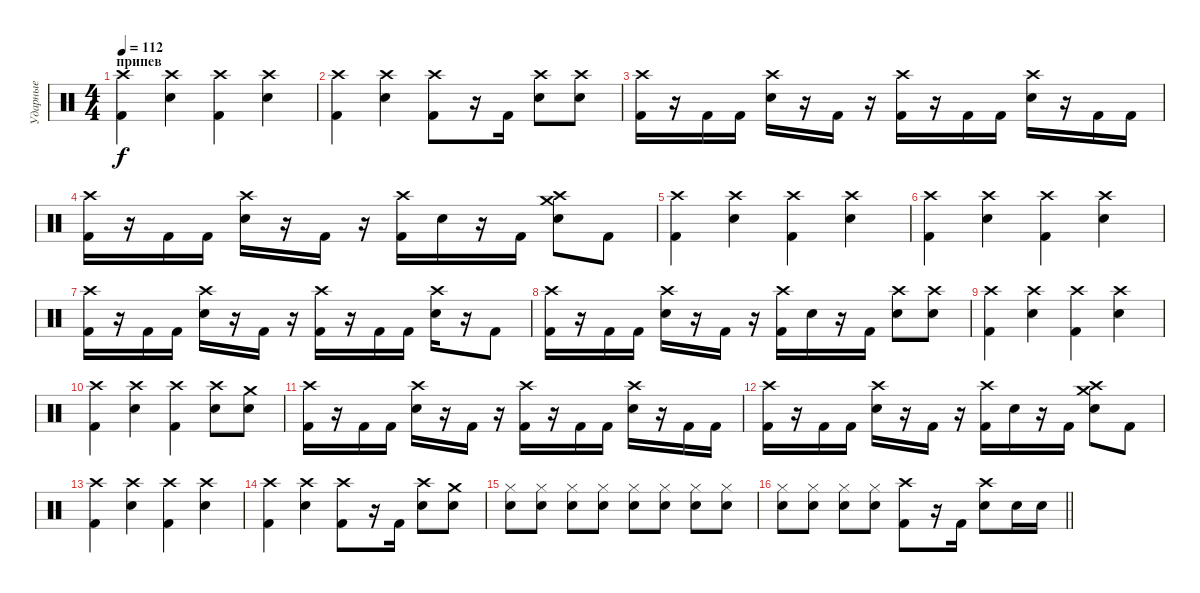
\track ("Ударные" "Ударные") {instrument percussion}
\staff {score}
\articulation defaults
\ts (4 4)
\section ("" "припев")
\tempo 112
\clef neutral
\ks c
("Crash high (hit)" "Kick (hit) 2").4{dy f} ("Crash high (hit)" "Snare (hit) 2").4 ("Crash high (hit)" "Kick (hit) 2").4 ("Crash high (hit)" "Snare (hit) 2").4 |
("Crash high (hit)" "Kick (hit) 2").4 ("Crash high (hit)" "Snare (hit) 2").4 ("Crash high (hit)" "Kick (hit) 2").8 r.16 "Kick (hit) 2".16 ("Crash high (hit)" "Snare (hit) 2").8 ("Crash high (hit)" "Snare (hit) 2").8 |
("Crash high (hit)" "Kick (hit) 2").16 r.16 "Kick (hit) 2".16 "Kick (hit) 2".16 ("Crash high (hit)" "Snare (hit) 2").16 r.16 "Kick (hit) 2".16 r.16 ("Crash high (hit)" "Kick (hit) 2").16 r.16 "Kick (hit) 2".16 "Kick (hit) 2".16 ("Crash high (hit)" "Snare (hit) 2").16 r.16 "Kick (hit) 2".16 "Kick (hit) 2".16 |
("Crash high (hit)" "Kick (hit) 2").16 r.16 "Kick (hit) 2".16 "Kick (hit) 2".16 ("Crash high (hit)" "Snare (hit) 2").16 r.16 "Kick (hit) 2".16 r.16 ("Crash high (hit)" "Kick (hit) 2").16 "Snare (hit) 2".16 r.16 "Kick (hit) 2".16 ("Crash high (hit)" "Crash medium (hit)" "Snare (hit) 2").8 "Kick (hit) 2".8 |
("Crash high (hit)" "Kick (hit) 2").4 ("Crash high (hit)" "Snare (hit) 2").4 ("Crash high (hit)" "Kick (hit) 2").4 ("Crash high (hit)" "Snare (hit) 2").4 |
("Crash high (hit)" "Kick (hit) 2").4 ("Crash high (hit)" "Snare (hit) 2").4 ("Crash high (hit)" "Kick (hit) 2").4 ("Crash high (hit)" "Snare (hit) 2").4 |
("Crash high (hit)" "Kick (hit) 2").16 r.16 "Kick (hit) 2".16 "Kick (hit) 2".16 ("Crash high (hit)" "Snare (hit) 2").16 r.16 "Kick (hit) 2".16 r.16 ("Crash high (hit)" "Kick (hit) 2").16 r.16 "Kick (hit) 2".16 "Kick (hit) 2".16 ("Crash high (hit)" "Snare (hit) 2").16 r.16 "Kick (hit) 2".8 |
("Crash high (hit)" "Kick (hit) 2").16 r.16 "Kick (hit) 2".16 "Kick (hit) 2".16 ("Crash high (hit)" "Snare (hit) 2").16 r.16 "Kick (hit) 2".16 r.16 ("Crash high (hit)" "Kick (hit) 2").16 "Snare (hit) 2".16 r.16 "Kick (hit) 2".16 ("Crash high (hit)" "Snare (hit) 2").8 ("Crash high (hit)" "Snare (hit) 2").8 |
("Crash high (hit)" "Kick (hit) 2").4 ("Crash high (hit)" "Snare (hit) 2").4 ("Crash high (hit)" "Kick (hit) 2").4 ("Crash high (hit)" "Snare (hit) 2").4 |
("Crash high (hit)" "Kick (hit) 2").4 ("Crash high (hit)" "Snare (hit) 2").4 ("Crash high (hit)" "Kick (hit) 2").4 ("Crash high (hit)" "Snare (hit) 2").8 ("Crash medium (hit)" "Snare (hit) 2").8 |
("Crash high (hit)" "Kick (hit) 2").16 r.16 "Kick (hit) 2".16 "Kick (hit) 2".16 ("Crash high (hit)" "Snare (hit) 2").16 r.16 "Kick (hit) 2".16 r.16 ("Crash high (hit)" "Kick (hit) 2").16 r.16 "Kick (hit) 2".16 "Kick (hit) 2".16 ("Crash high (hit)" "Snare (hit) 2").16 r.16 "Kick (hit) 2".16 "Kick (hit) 2".16 |
("Crash high (hit)" "Kick (hit) 2").16 r.16 "Kick (hit) 2".16 "Kick (hit) 2".16 ("Crash high (hit)" "Snare (hit) 2").16 r.16 "Kick (hit) 2".16 r.16 ("Crash high (hit)" "Kick (hit) 2").16 "Snare (hit) 2".16 r.16 "Kick (hit) 2".16 ("Crash high (hit)" "Crash medium (hit)" "Snare (hit) 2").8 "Kick (hit) 2".8 |
("Crash high (hit)" "Kick (hit) 2").4 ("Crash high (hit)" "Snare (hit) 2").4 ("Crash high (hit)" "Kick (hit) 2").4 ("Crash high (hit)" "Snare (hit) 2").4 |
("Crash high (hit)" "Kick (hit) 2").4 ("Crash high (hit)" "Snare (hit) 2").4 ("Crash high (hit)" "Kick (hit) 2").8 r.16 "Kick (hit) 2".16 ("Crash high (hit)" "Snare (hit) 2").8 ("Crash medium (hit)" "Snare (hit) 2").8 |
("Hi-Hat (closed)" "Snare (hit) 2").8 ("Hi-Hat (closed)" "Snare (hit) 2").8 ("Hi-Hat (closed)" "Snare (hit) 2").8 ("Hi-Hat (closed)" "Snare (hit) 2").8 ("Hi-Hat (closed)" "Snare (hit) 2").8 ("Hi-Hat (closed)" "Snare (hit) 2").8 ("Hi-Hat (closed)" "Snare (hit) 2").8 ("Hi-Hat (closed)" "Snare (hit) 2").8 |
\barLineRight lightlight
("Hi-Hat (closed)" "Snare (hit) 2").8 ("Hi-Hat (closed)" "Snare (hit) 2").8 ("Hi-Hat (closed)" "Snare (hit) 2").8 ("Hi-Hat (closed)" "Snare (hit) 2").8 ("Crash high (hit)" "Kick (hit) 2").8 r.16 "Kick (hit) 2".16 ("Crash high (hit)" "Snare (hit) 2").8 "Snare (hit) 2".16 "Snare (hit) 2".16
